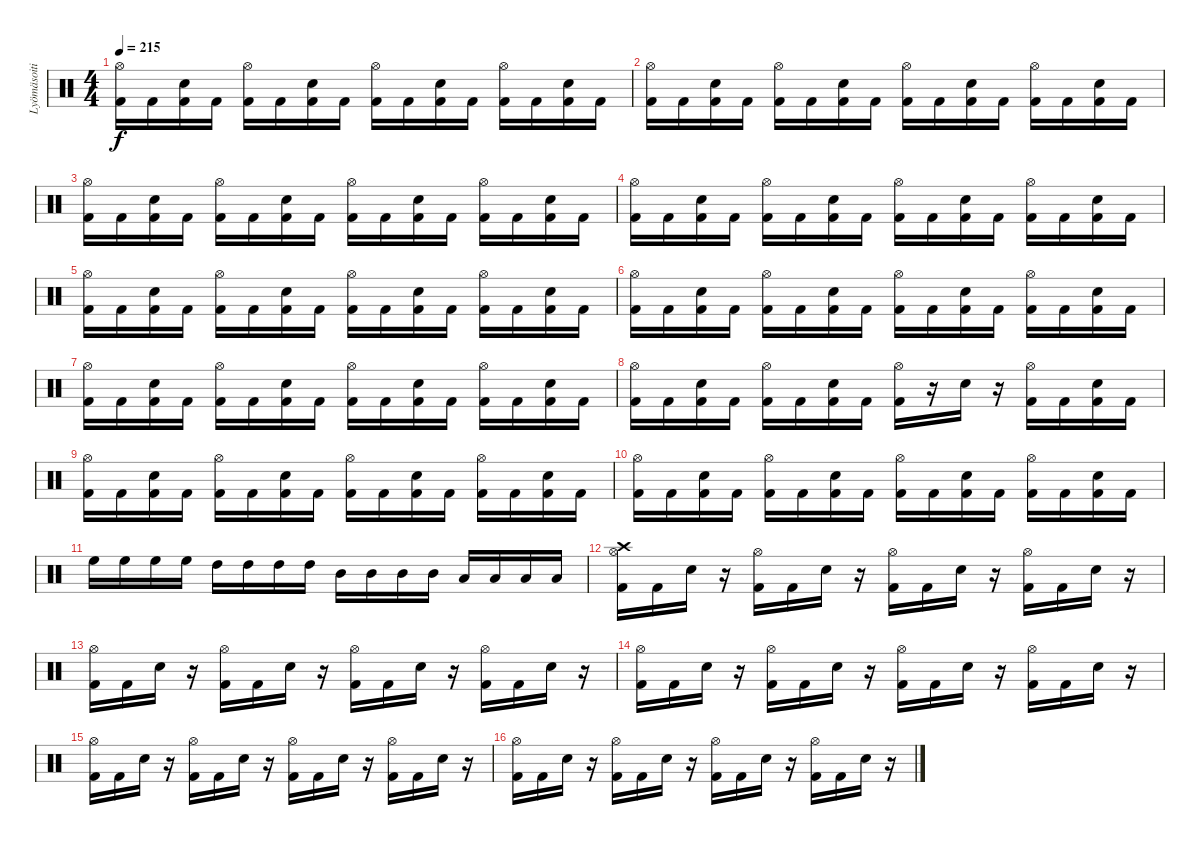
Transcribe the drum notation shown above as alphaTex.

\track ("Lyömäsoitin" "Lyömäsoiti") {instrument percussion}
\staff {score}
\articulation defaults
\ts (4 4)
\tempo 215
\clef neutral
\ks c
("Hi-Hat (open)" "Kick (hit) 2").16{dy f} "Kick (hit) 2".16 ("Electric Snare (hit)" "Kick (hit) 2").16 "Kick (hit) 2".16 ("Hi-Hat (open)" "Kick (hit) 2").16 "Kick (hit) 2".16 ("Electric Snare (hit)" "Kick (hit) 2").16 "Kick (hit) 2".16 ("Hi-Hat (open)" "Kick (hit) 2").16 "Kick (hit) 2".16 ("Electric Snare (hit)" "Kick (hit) 2").16 "Kick (hit) 2".16 ("Hi-Hat (open)" "Kick (hit) 2").16 "Kick (hit) 2".16 ("Electric Snare (hit)" "Kick (hit) 2").16 "Kick (hit) 2".16 |
("Hi-Hat (open)" "Kick (hit) 2").16 "Kick (hit) 2".16 ("Electric Snare (hit)" "Kick (hit) 2").16 "Kick (hit) 2".16 ("Hi-Hat (open)" "Kick (hit) 2").16 "Kick (hit) 2".16 ("Electric Snare (hit)" "Kick (hit) 2").16 "Kick (hit) 2".16 ("Hi-Hat (open)" "Kick (hit) 2").16 "Kick (hit) 2".16 ("Electric Snare (hit)" "Kick (hit) 2").16 "Kick (hit) 2".16 ("Hi-Hat (open)" "Kick (hit) 2").16 "Kick (hit) 2".16 ("Electric Snare (hit)" "Kick (hit) 2").16 "Kick (hit) 2".16 |
("Hi-Hat (open)" "Kick (hit) 2").16 "Kick (hit) 2".16 ("Electric Snare (hit)" "Kick (hit) 2").16 "Kick (hit) 2".16 ("Hi-Hat (open)" "Kick (hit) 2").16 "Kick (hit) 2".16 ("Electric Snare (hit)" "Kick (hit) 2").16 "Kick (hit) 2".16 ("Hi-Hat (open)" "Kick (hit) 2").16 "Kick (hit) 2".16 ("Electric Snare (hit)" "Kick (hit) 2").16 "Kick (hit) 2".16 ("Hi-Hat (open)" "Kick (hit) 2").16 "Kick (hit) 2".16 ("Electric Snare (hit)" "Kick (hit) 2").16 "Kick (hit) 2".16 |
("Hi-Hat (open)" "Kick (hit) 2").16 "Kick (hit) 2".16 ("Electric Snare (hit)" "Kick (hit) 2").16 "Kick (hit) 2".16 ("Hi-Hat (open)" "Kick (hit) 2").16 "Kick (hit) 2".16 ("Electric Snare (hit)" "Kick (hit) 2").16 "Kick (hit) 2".16 ("Hi-Hat (open)" "Kick (hit) 2").16 "Kick (hit) 2".16 ("Electric Snare (hit)" "Kick (hit) 2").16 "Kick (hit) 2".16 ("Hi-Hat (open)" "Kick (hit) 2").16 "Kick (hit) 2".16 ("Electric Snare (hit)" "Kick (hit) 2").16 "Kick (hit) 2".16 |
("Hi-Hat (open)" "Kick (hit) 2").16 "Kick (hit) 2".16 ("Electric Snare (hit)" "Kick (hit) 2").16 "Kick (hit) 2".16 ("Hi-Hat (open)" "Kick (hit) 2").16 "Kick (hit) 2".16 ("Electric Snare (hit)" "Kick (hit) 2").16 "Kick (hit) 2".16 ("Hi-Hat (open)" "Kick (hit) 2").16 "Kick (hit) 2".16 ("Electric Snare (hit)" "Kick (hit) 2").16 "Kick (hit) 2".16 ("Hi-Hat (open)" "Kick (hit) 2").16 "Kick (hit) 2".16 ("Electric Snare (hit)" "Kick (hit) 2").16 "Kick (hit) 2".16 |
("Hi-Hat (open)" "Kick (hit) 2").16 "Kick (hit) 2".16 ("Electric Snare (hit)" "Kick (hit) 2").16 "Kick (hit) 2".16 ("Hi-Hat (open)" "Kick (hit) 2").16 "Kick (hit) 2".16 ("Electric Snare (hit)" "Kick (hit) 2").16 "Kick (hit) 2".16 ("Hi-Hat (open)" "Kick (hit) 2").16 "Kick (hit) 2".16 ("Electric Snare (hit)" "Kick (hit) 2").16 "Kick (hit) 2".16 ("Hi-Hat (open)" "Kick (hit) 2").16 "Kick (hit) 2".16 ("Electric Snare (hit)" "Kick (hit) 2").16 "Kick (hit) 2".16 |
("Hi-Hat (open)" "Kick (hit) 2").16 "Kick (hit) 2".16 ("Electric Snare (hit)" "Kick (hit) 2").16 "Kick (hit) 2".16 ("Hi-Hat (open)" "Kick (hit) 2").16 "Kick (hit) 2".16 ("Electric Snare (hit)" "Kick (hit) 2").16 "Kick (hit) 2".16 ("Hi-Hat (open)" "Kick (hit) 2").16 "Kick (hit) 2".16 ("Electric Snare (hit)" "Kick (hit) 2").16 "Kick (hit) 2".16 ("Hi-Hat (open)" "Kick (hit) 2").16 "Kick (hit) 2".16 ("Electric Snare (hit)" "Kick (hit) 2").16 "Kick (hit) 2".16 |
("Hi-Hat (open)" "Kick (hit) 2").16 "Kick (hit) 2".16 ("Electric Snare (hit)" "Kick (hit) 2").16 "Kick (hit) 2".16 ("Hi-Hat (open)" "Kick (hit) 2").16 "Kick (hit) 2".16 ("Electric Snare (hit)" "Kick (hit) 2").16 "Kick (hit) 2".16 ("Hi-Hat (open)" "Kick (hit) 2").16 r.16 "Electric Snare (hit)".16 r.16 ("Hi-Hat (open)" "Kick (hit) 2").16 "Kick (hit) 2".16 ("Electric Snare (hit)" "Kick (hit) 2").16 "Kick (hit) 2".16 |
("Hi-Hat (open)" "Kick (hit) 2").16 "Kick (hit) 2".16 ("Electric Snare (hit)" "Kick (hit) 2").16 "Kick (hit) 2".16 ("Hi-Hat (open)" "Kick (hit) 2").16 "Kick (hit) 2".16 ("Electric Snare (hit)" "Kick (hit) 2").16 "Kick (hit) 2".16 ("Hi-Hat (open)" "Kick (hit) 2").16 "Kick (hit) 2".16 ("Electric Snare (hit)" "Kick (hit) 2").16 "Kick (hit) 2".16 ("Hi-Hat (open)" "Kick (hit) 2").16 "Kick (hit) 2".16 ("Electric Snare (hit)" "Kick (hit) 2").16 "Kick (hit) 2".16 |
("Hi-Hat (open)" "Kick (hit) 2").16 "Kick (hit) 2".16 ("Electric Snare (hit)" "Kick (hit) 2").16 "Kick (hit) 2".16 ("Hi-Hat (open)" "Kick (hit) 2").16 "Kick (hit) 2".16 ("Electric Snare (hit)" "Kick (hit) 2").16 "Kick (hit) 2".16 ("Hi-Hat (open)" "Kick (hit) 2").16 "Kick (hit) 2".16 ("Electric Snare (hit)" "Kick (hit) 2").16 "Kick (hit) 2".16 ("Hi-Hat (open)" "Kick (hit) 2").16 "Kick (hit) 2".16 ("Electric Snare (hit)" "Kick (hit) 2").16 "Kick (hit) 2".16 |
"High Floor Tom (hit)".16 "High Floor Tom (hit)".16 "High Floor Tom (hit)".16 "High Floor Tom (hit)".16 "High Tom (hit)".16 "High Tom (hit)".16 "High Tom (hit)".16 "High Tom (hit)".16 "Mid Tom (hit)".16 "Mid Tom (hit)".16 "Mid Tom (hit)".16 "Mid Tom (hit)".16 "Low Tom (hit)".16 "Low Tom (hit)".16 "Low Tom (hit)".16 "Low Tom (hit)".16 |
("Crash high (hit)" "Hi-Hat (open)" "Kick (hit) 2").16 "Kick (hit) 2".16 "Electric Snare (hit)".16 r.16 ("Hi-Hat (open)" "Kick (hit) 2").16 "Kick (hit) 2".16 "Electric Snare (hit)".16 r.16 ("Hi-Hat (open)" "Kick (hit) 2").16 "Kick (hit) 2".16 "Electric Snare (hit)".16 r.16 ("Hi-Hat (open)" "Kick (hit) 2").16 "Kick (hit) 2".16 "Electric Snare (hit)".16 r.16 |
("Hi-Hat (open)" "Kick (hit) 2").16 "Kick (hit) 2".16 "Electric Snare (hit)".16 r.16 ("Hi-Hat (open)" "Kick (hit) 2").16 "Kick (hit) 2".16 "Electric Snare (hit)".16 r.16 ("Hi-Hat (open)" "Kick (hit) 2").16 "Kick (hit) 2".16 "Electric Snare (hit)".16 r.16 ("Hi-Hat (open)" "Kick (hit) 2").16 "Kick (hit) 2".16 "Electric Snare (hit)".16 r.16 |
("Hi-Hat (open)" "Kick (hit) 2").16 "Kick (hit) 2".16 "Electric Snare (hit)".16 r.16 ("Hi-Hat (open)" "Kick (hit) 2").16 "Kick (hit) 2".16 "Electric Snare (hit)".16 r.16 ("Hi-Hat (open)" "Kick (hit) 2").16 "Kick (hit) 2".16 "Electric Snare (hit)".16 r.16 ("Hi-Hat (open)" "Kick (hit) 2").16 "Kick (hit) 2".16 "Electric Snare (hit)".16 r.16 |
("Hi-Hat (open)" "Kick (hit) 2").16 "Kick (hit) 2".16 "Electric Snare (hit)".16 r.16 ("Hi-Hat (open)" "Kick (hit) 2").16 "Kick (hit) 2".16 "Electric Snare (hit)".16 r.16 ("Hi-Hat (open)" "Kick (hit) 2").16 "Kick (hit) 2".16 "Electric Snare (hit)".16 r.16 ("Hi-Hat (open)" "Kick (hit) 2").16 "Kick (hit) 2".16 "Electric Snare (hit)".16 r.16 |
("Hi-Hat (open)" "Kick (hit) 2").16 "Kick (hit) 2".16 "Electric Snare (hit)".16 r.16 ("Hi-Hat (open)" "Kick (hit) 2").16 "Kick (hit) 2".16 "Electric Snare (hit)".16 r.16 ("Hi-Hat (open)" "Kick (hit) 2").16 "Kick (hit) 2".16 "Electric Snare (hit)".16 r.16 ("Hi-Hat (open)" "Kick (hit) 2").16 "Kick (hit) 2".16 "Electric Snare (hit)".16 r.16
